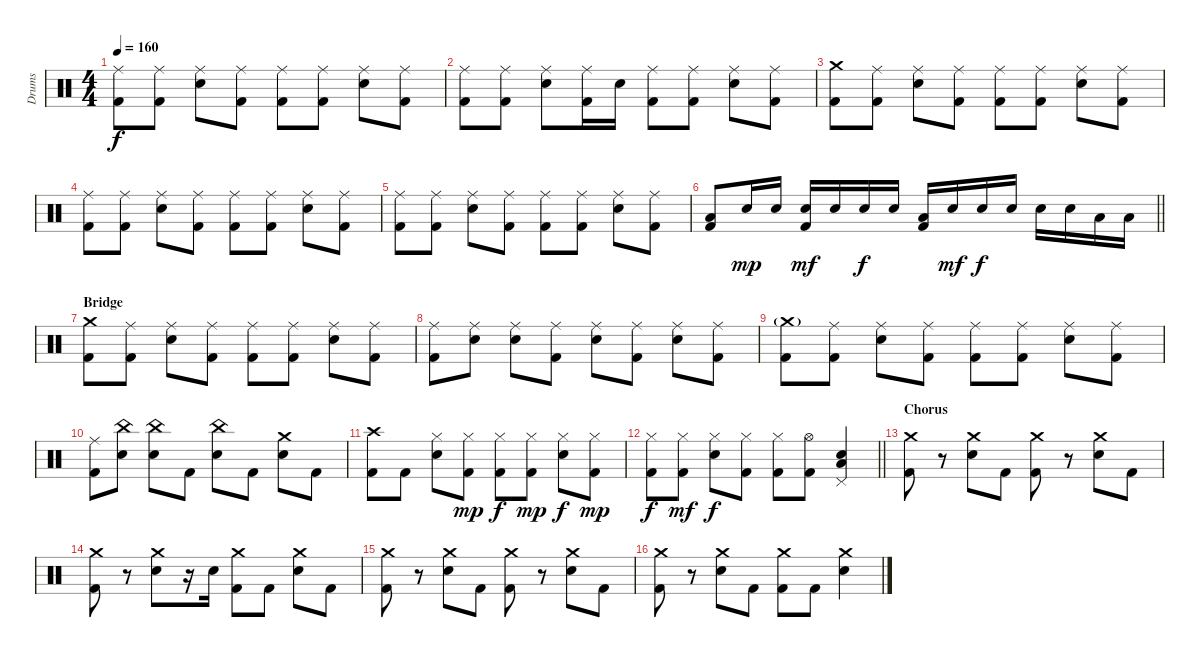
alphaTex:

\track ("Drums" "Drums") {instrument percussion}
\staff {score}
\articulation defaults
\ts (4 4)
\tempo 160
\clef neutral
\ks c
("Ride (middle)" "Kick (hit) 2").8{dy f} ("Ride (middle)" "Kick (hit) 2").8 ("Ride (middle)" "Electric Snare (hit)").8 ("Ride (middle)" "Kick (hit) 2").8 ("Ride (middle)" "Kick (hit) 2").8 ("Ride (middle)" "Kick (hit) 2").8 ("Ride (middle)" "Electric Snare (hit)").8 ("Ride (middle)" "Kick (hit) 2").8 |
("Ride (middle)" "Kick (hit) 2").8 ("Ride (middle)" "Kick (hit) 2").8 ("Ride (middle)" "Electric Snare (hit)").8 ("Ride (middle)" "Kick (hit) 2").16 "Electric Snare (hit)".16 ("Ride (middle)" "Kick (hit) 2").8 ("Ride (middle)" "Kick (hit) 2").8 ("Ride (middle)" "Electric Snare (hit)").8 ("Ride (middle)" "Kick (hit) 2").8 |
("Crash medium (hit)" "Kick (hit) 2").8 ("Ride (middle)" "Kick (hit) 2").8 ("Ride (middle)" "Electric Snare (hit)").8 ("Ride (middle)" "Kick (hit) 2").8 ("Ride (middle)" "Kick (hit) 2").8 ("Ride (middle)" "Kick (hit) 2").8 ("Ride (middle)" "Electric Snare (hit)").8 ("Ride (middle)" "Kick (hit) 2").8 |
("Ride (middle)" "Kick (hit) 2").8 ("Ride (middle)" "Kick (hit) 2").8 ("Ride (middle)" "Electric Snare (hit)").8 ("Ride (middle)" "Kick (hit) 2").8 ("Ride (middle)" "Kick (hit) 2").8 ("Ride (middle)" "Kick (hit) 2").8 ("Ride (middle)" "Electric Snare (hit)").8 ("Ride (middle)" "Kick (hit) 2").8 |
("Ride (middle)" "Kick (hit) 2").8 ("Ride (middle)" "Kick (hit) 2").8 ("Ride (middle)" "Electric Snare (hit)").8 ("Ride (middle)" "Kick (hit) 2").8 ("Ride (middle)" "Kick (hit) 2").8 ("Ride (middle)" "Kick (hit) 2").8 ("Ride (middle)" "Electric Snare (hit)").8 ("Ride (middle)" "Kick (hit) 2").8 |
\barLineRight lightlight
("Low Tom (hit)" "Kick (hit) 2").8 "Electric Snare (hit)".16{dy mp} "Electric Snare (hit)".16 ("Electric Snare (hit)" "Kick (hit) 2").16{dy mf} "Electric Snare (hit)".16 "Electric Snare (hit)".16{dy f} "Electric Snare (hit)".16 ("Low Tom (hit)" "Kick (hit) 2").16 "Electric Snare (hit)".16{dy mf} "Electric Snare (hit)".16{dy f} "Electric Snare (hit)".16 "Electric Snare (hit)".16 "Electric Snare (hit)".16 "Low Floor Tom (hit)".16 "Low Floor Tom (hit)".16 |
\section ("" "Bridge")
("Crash medium (hit)" "Kick (hit) 2").8 ("Ride (middle)" "Kick (hit) 2").8 ("Ride (middle)" "Electric Snare (hit)").8 ("Ride (middle)" "Kick (hit) 2").8 ("Ride (middle)" "Kick (hit) 2").8 ("Ride (middle)" "Kick (hit) 2").8 ("Ride (middle)" "Electric Snare (hit)").8 ("Ride (middle)" "Kick (hit) 2").8 |
("Ride (middle)" "Kick (hit) 2").8 ("Ride (middle)" "Electric Snare (hit)").8 ("Ride (middle)" "Electric Snare (hit)").8 ("Ride (middle)" "Kick (hit) 2").8 ("Ride (middle)" "Electric Snare (hit)").8 ("Ride (middle)" "Kick (hit) 2").8 ("Ride (middle)" "Electric Snare (hit)").8 ("Ride (middle)" "Kick (hit) 2").8 |
("Crash medium (hit)"{g} "Kick (hit) 2").8 ("Ride (middle)" "Kick (hit) 2").8 ("Ride (middle)" "Electric Snare (hit)").8 ("Ride (middle)" "Kick (hit) 2").8 ("Ride (middle)" "Kick (hit) 2").8 ("Ride (middle)" "Kick (hit) 2").8 ("Ride (middle)" "Electric Snare (hit)").8 ("Ride (middle)" "Kick (hit) 2").8 |
("Ride (middle)" "Kick (hit) 2").8 ("China (hit)" "Electric Snare (hit)").8 ("China (hit)" "Electric Snare (hit)").8 "Kick (hit) 2".8 ("China (hit)" "Electric Snare (hit)").8 "Kick (hit) 2".8 ("Crash medium (hit)" "Electric Snare (hit)").8 "Kick (hit) 2".8 |
("Crash high (hit)" "Kick (hit) 2").8 "Kick (hit) 2".8 ("Hi-Hat (closed)" "Electric Snare (hit)").8 ("Hi-Hat (closed)" "Kick (hit) 2").8{dy mp} ("Hi-Hat (closed)" "Kick (hit) 2").8{dy f} ("Hi-Hat (closed)" "Kick (hit) 2").8{dy mp} ("Hi-Hat (closed)" "Electric Snare (hit)").8{dy f} ("Hi-Hat (closed)" "Kick (hit) 2").8{dy mp} |
\barLineRight lightlight
("Hi-Hat (closed)" "Kick (hit) 2").8{dy f} ("Hi-Hat (closed)" "Kick (hit) 2").8{dy mf} ("Hi-Hat (closed)" "Electric Snare (hit)").8{dy f} ("Hi-Hat (closed)" "Kick (hit) 2").8 ("Hi-Hat (closed)" "Kick (hit) 2").8 ("Hi-Hat (open)" "Kick (hit) 2").8 ("Pedal Hi-Hat (hit)" "Low Floor Tom (hit)" "Electric Snare (hit)").4 |
\section ("" "Chorus")
("Crash medium (hit)" "Kick (hit) 2").8 r.8 ("Crash medium (hit)" "Electric Snare (hit)").8 "Kick (hit) 2".8 ("Crash medium (hit)" "Kick (hit) 2").8 r.8 ("Crash medium (hit)" "Electric Snare (hit)").8 "Kick (hit) 2".8 |
("Crash medium (hit)" "Kick (hit) 2").8 r.8 ("Crash medium (hit)" "Electric Snare (hit)").8 r.16 "Electric Snare (hit)".16 ("Crash medium (hit)" "Kick (hit) 2").8 "Kick (hit) 2".8 ("Crash medium (hit)" "Electric Snare (hit)").8 "Kick (hit) 2".8 |
("Crash medium (hit)" "Kick (hit) 2").8 r.8 ("Crash medium (hit)" "Electric Snare (hit)").8 "Kick (hit) 2".8 ("Crash medium (hit)" "Kick (hit) 2").8 r.8 ("Crash medium (hit)" "Electric Snare (hit)").8 "Kick (hit) 2".8 |
("Crash medium (hit)" "Kick (hit) 2").8 r.8 ("Crash medium (hit)" "Electric Snare (hit)").8 "Kick (hit) 2".8 ("Crash medium (hit)" "Kick (hit) 2").8 "Kick (hit) 2".8 ("Crash medium (hit)" "Electric Snare (hit)").4
